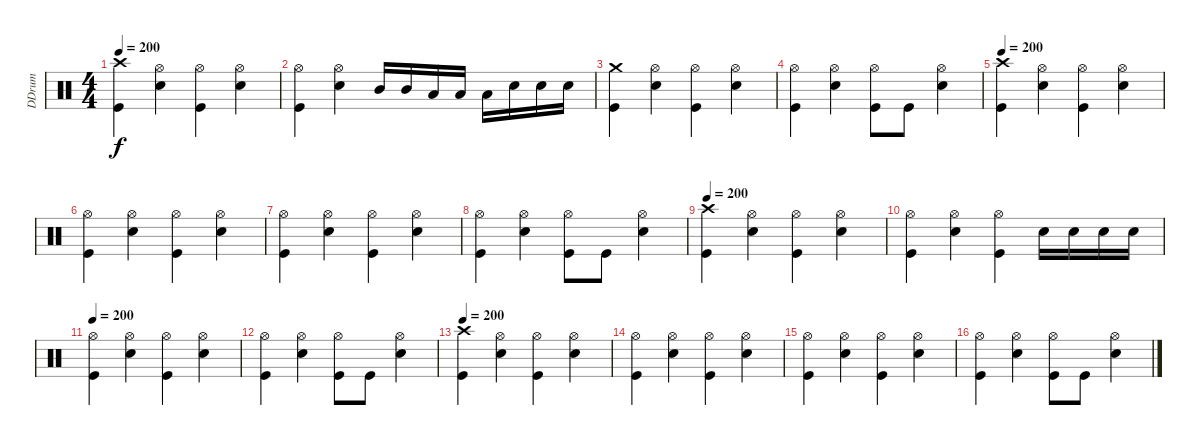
\track ("DDrum" "DDrum") {instrument percussion}
\staff {score}
\articulation defaults
\ts (4 4)
\tempo 200
\clef neutral
\ks c
("Crash high (hit)" "Kick (hit)").4{dy f} ("Hi-Hat (open)" "Electric Snare (hit)").4 ("Hi-Hat (open)" "Kick (hit)").4 ("Hi-Hat (open)" "Electric Snare (hit)").4 |
("Hi-Hat (open)" "Kick (hit)").4 ("Hi-Hat (open)" "Electric Snare (hit)").4 "Mid Tom (hit)".16 "Mid Tom (hit)".16 "Low Tom (hit)".16 "Low Tom (hit)".16 "Low Tom (hit)".16 "Electric Snare (hit)".16 "Electric Snare (hit)".16 "Electric Snare (hit)".16 |
("Crash medium (hit)" "Kick (hit)").4 ("Hi-Hat (open)" "Electric Snare (hit)").4 ("Hi-Hat (open)" "Kick (hit)").4 ("Hi-Hat (open)" "Electric Snare (hit)").4 |
("Hi-Hat (open)" "Kick (hit)").4 ("Hi-Hat (open)" "Electric Snare (hit)").4 ("Hi-Hat (open)" "Kick (hit)").8 "Kick (hit)".8 ("Hi-Hat (open)" "Electric Snare (hit)").4 |
\tempo 200
("Crash high (hit)" "Kick (hit)").4 ("Hi-Hat (open)" "Electric Snare (hit)").4 ("Hi-Hat (open)" "Kick (hit)").4 ("Hi-Hat (open)" "Electric Snare (hit)").4 |
("Hi-Hat (open)" "Kick (hit)").4 ("Hi-Hat (open)" "Electric Snare (hit)").4 ("Hi-Hat (open)" "Kick (hit)").4 ("Hi-Hat (open)" "Electric Snare (hit)").4 |
("Hi-Hat (open)" "Kick (hit)").4 ("Hi-Hat (open)" "Electric Snare (hit)").4 ("Hi-Hat (open)" "Kick (hit)").4 ("Hi-Hat (open)" "Electric Snare (hit)").4 |
("Hi-Hat (open)" "Kick (hit)").4 ("Hi-Hat (open)" "Electric Snare (hit)").4 ("Hi-Hat (open)" "Kick (hit)").8 "Kick (hit)".8 ("Hi-Hat (open)" "Electric Snare (hit)").4 |
\tempo 200
("Crash high (hit)" "Kick (hit)").4 ("Hi-Hat (open)" "Electric Snare (hit)").4 ("Hi-Hat (open)" "Kick (hit)").4 ("Hi-Hat (open)" "Electric Snare (hit)").4 |
("Hi-Hat (open)" "Kick (hit)").4 ("Hi-Hat (open)" "Electric Snare (hit)").4 ("Hi-Hat (open)" "Kick (hit)").4 "Electric Snare (hit)".16 "Electric Snare (hit)".16 "Electric Snare (hit)".16 "Electric Snare (hit)".16 |
\tempo 200
("Hi-Hat (open)" "Kick (hit)").4 ("Hi-Hat (open)" "Electric Snare (hit)").4 ("Hi-Hat (open)" "Kick (hit)").4 ("Hi-Hat (open)" "Electric Snare (hit)").4 |
("Hi-Hat (open)" "Kick (hit)").4 ("Hi-Hat (open)" "Electric Snare (hit)").4 ("Hi-Hat (open)" "Kick (hit)").8 "Kick (hit)".8 ("Hi-Hat (open)" "Electric Snare (hit)").4 |
\tempo 200
("Crash high (hit)" "Kick (hit)").4 ("Hi-Hat (open)" "Electric Snare (hit)").4 ("Hi-Hat (open)" "Kick (hit)").4 ("Hi-Hat (open)" "Electric Snare (hit)").4 |
("Hi-Hat (open)" "Kick (hit)").4 ("Hi-Hat (open)" "Electric Snare (hit)").4 ("Hi-Hat (open)" "Kick (hit)").4 ("Hi-Hat (open)" "Electric Snare (hit)").4 |
("Hi-Hat (open)" "Kick (hit)").4 ("Hi-Hat (open)" "Electric Snare (hit)").4 ("Hi-Hat (open)" "Kick (hit)").4 ("Hi-Hat (open)" "Electric Snare (hit)").4 |
("Hi-Hat (open)" "Kick (hit)").4 ("Hi-Hat (open)" "Electric Snare (hit)").4 ("Hi-Hat (open)" "Kick (hit)").8 "Kick (hit)".8 ("Hi-Hat (open)" "Electric Snare (hit)").4
